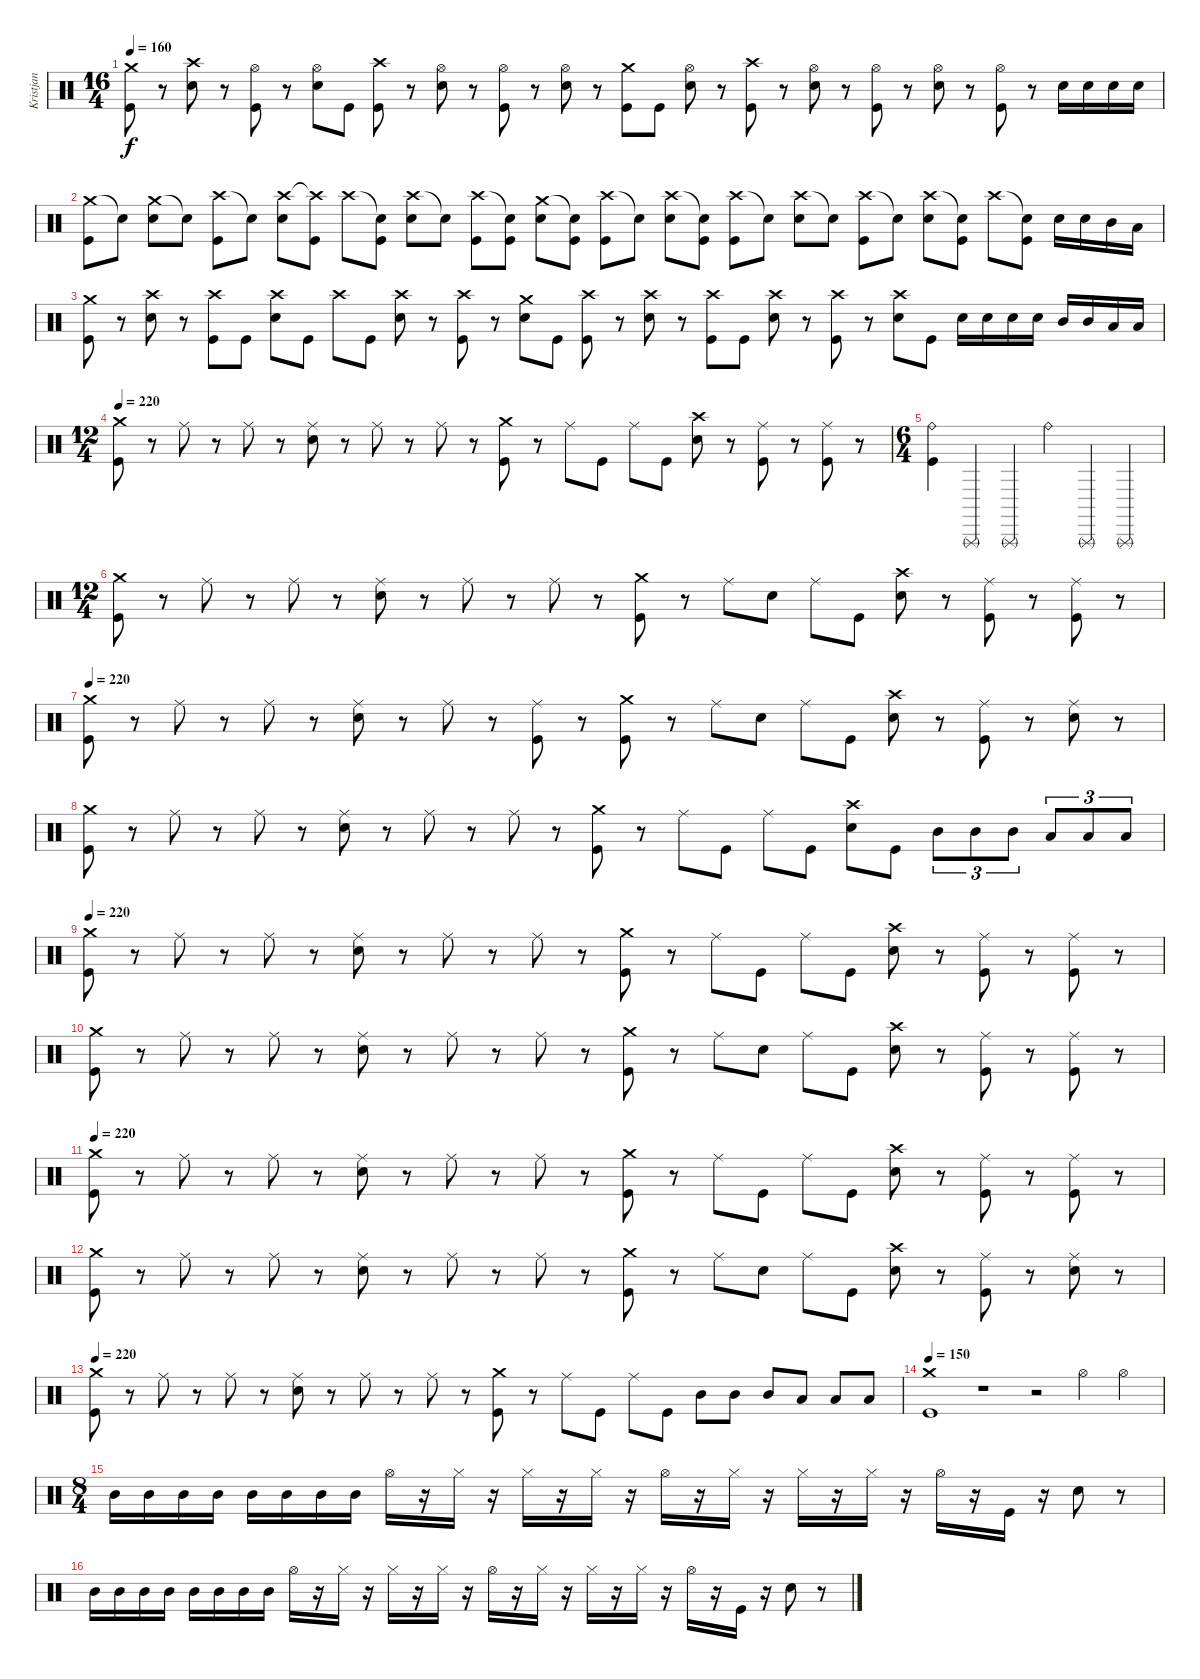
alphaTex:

\track ("Kristjan" "Kristjan") {instrument percussion}
\staff {score}
\articulation defaults
\ts (16 4)
\tempo 160
\clef neutral
\ks c
("Crash medium (hit)" "Kick (hit)").8{dy f} r.8 ("Crash high (hit)" "Electric Snare (hit)").8 r.8 ("Hi-Hat (open)" "Kick (hit)").8 r.8 ("Hi-Hat (open)" "Electric Snare (hit)").8 "Kick (hit)".8 ("Crash high (hit)" "Kick (hit)").8 r.8 ("Hi-Hat (open)" "Electric Snare (hit)").8 r.8 ("Hi-Hat (open)" "Kick (hit)").8 r.8 ("Hi-Hat (open)" "Electric Snare (hit)").8 r.8 ("Crash medium (hit)" "Kick (hit)").8 "Kick (hit)".8 ("Hi-Hat (open)" "Electric Snare (hit)").8 r.8 ("Crash high (hit)" "Kick (hit)").8 r.8 ("Hi-Hat (open)" "Electric Snare (hit)").8 r.8 ("Hi-Hat (open)" "Kick (hit)").8 r.8 ("Hi-Hat (open)" "Electric Snare (hit)").8 r.8 ("Hi-Hat (open)" "Kick (hit)").8 r.8 "Electric Snare (hit)".16 "Electric Snare (hit)".16 "Electric Snare (hit)".16 "Electric Snare (hit)".16 |
("Crash medium (hit)" "Kick (hit)").8 "Snare (hit)"{t}.8 ("Crash medium (hit)" "Electric Snare (hit)").8 "Snare (hit)"{t}.8 ("Crash high (hit)" "Kick (hit)").8 "Snare (hit)"{t}.8 ("Crash high (hit)" "Electric Snare (hit)").8 ("Crash high (hit)"{t} "Kick (hit)").8 "Crash high (hit)".8 ("Snare (hit)"{t} "Kick (hit)").8 ("Crash high (hit)" "Electric Snare (hit)").8 "Snare (hit)"{t}.8 ("Crash high (hit)" "Kick (hit)").8 ("Snare (hit)"{t} "Kick (hit)").8 ("Crash medium (hit)" "Electric Snare (hit)").8 ("Snare (hit)"{t} "Kick (hit)").8 ("Crash high (hit)" "Kick (hit)").8 "Snare (hit)"{t}.8 ("Crash high (hit)" "Electric Snare (hit)").8 ("Snare (hit)"{t} "Kick (hit)").8 ("Crash high (hit)" "Kick (hit)").8 "Snare (hit)"{t}.8 ("Crash high (hit)" "Electric Snare (hit)").8 "Snare (hit)"{t}.8 ("Crash high (hit)" "Kick (hit)").8 "Snare (hit)"{t}.8 ("Crash high (hit)" "Electric Snare (hit)").8 ("Snare (hit)"{t} "Kick (hit)").8 "Crash high (hit)".8 ("Snare (hit)"{t} "Kick (hit)").8 "Electric Snare (hit)".16 "Electric Snare (hit)".16 "Mid Tom (hit)".16 "Low Floor Tom (hit)".16 |
("Crash medium (hit)" "Kick (hit)").8 r.8 ("Crash high (hit)" "Electric Snare (hit)").8 r.8 ("Crash high (hit)" "Kick (hit)").8 "Kick (hit)".8 ("Crash high (hit)" "Electric Snare (hit)").8 "Kick (hit)".8 "Crash high (hit)".8 "Kick (hit)".8 ("Crash high (hit)" "Electric Snare (hit)").8 r.8 ("Crash high (hit)" "Kick (hit)").8 r.8 ("Crash medium (hit)" "Electric Snare (hit)").8 "Kick (hit)".8 ("Crash high (hit)" "Kick (hit)").8 r.8 ("Crash high (hit)" "Electric Snare (hit)").8 r.8 ("Crash high (hit)" "Kick (hit)").8 "Kick (hit)".8 ("Crash high (hit)" "Electric Snare (hit)").8 r.8 ("Crash high (hit)" "Kick (hit)").8 r.8 ("Crash high (hit)" "Electric Snare (hit)").8 "Kick (hit)".8 "Electric Snare (hit)".16 "Electric Snare (hit)".16 "Electric Snare (hit)".16 "Electric Snare (hit)".16 "Mid Tom (hit)".16 "Mid Tom (hit)".16 "Low Floor Tom (hit)".16 "Low Floor Tom (hit)".16 |
\ts (12 4)
\tempo 220
("Crash medium (hit)" "Kick (hit)").8 r.8 "Ride (middle)".8 r.8 "Ride (middle)".8 r.8 ("Ride (middle)" "Electric Snare (hit)").8 r.8 "Ride (middle)".8 r.8 "Ride (middle)".8 r.8 ("Crash medium (hit)" "Kick (hit)").8 r.8 "Ride (middle)".8 "Kick (hit)".8 "Ride (middle)".8 "Kick (hit)".8 ("Crash high (hit)" "Electric Snare (hit)").8 r.8 ("Ride (middle)" "Kick (hit)").8 r.8 ("Ride (middle)" "Kick (hit)").8 r.8 |
\ts (6 4)
("Ride (bell)" "Kick (hit)").4 "Triangle (rnute)".4 "Triangle (rnute)".4 "Ride (bell)".4 "Triangle (rnute)".4 "Triangle (rnute)".4 |
\ts (12 4)
("Crash medium (hit)" "Kick (hit)").8 r.8 "Ride (middle)".8 r.8 "Ride (middle)".8 r.8 ("Ride (middle)" "Electric Snare (hit)").8 r.8 "Ride (middle)".8 r.8 "Ride (middle)".8 r.8 ("Crash medium (hit)" "Kick (hit)").8 r.8 "Ride (middle)".8 "Electric Snare (hit)".8 "Ride (middle)".8 "Kick (hit)".8 ("Crash high (hit)" "Electric Snare (hit)").8 r.8 ("Ride (middle)" "Kick (hit)").8 r.8 ("Ride (middle)" "Kick (hit)").8 r.8 |
\tempo 220
("Crash medium (hit)" "Kick (hit)").8 r.8 "Ride (middle)".8 r.8 "Ride (middle)".8 r.8 ("Ride (middle)" "Electric Snare (hit)").8 r.8 "Ride (middle)".8 r.8 ("Ride (middle)" "Kick (hit)").8 r.8 ("Crash medium (hit)" "Kick (hit)").8 r.8 "Ride (middle)".8 "Electric Snare (hit)".8 "Ride (middle)".8 "Kick (hit)".8 ("Crash high (hit)" "Electric Snare (hit)").8 r.8 ("Ride (middle)" "Kick (hit)").8 r.8 ("Ride (middle)" "Electric Snare (hit)").8 r.8 |
("Crash medium (hit)" "Kick (hit)").8 r.8 "Ride (middle)".8 r.8 "Ride (middle)".8 r.8 ("Ride (middle)" "Electric Snare (hit)").8 r.8 "Ride (middle)".8 r.8 "Ride (middle)".8 r.8 ("Crash medium (hit)" "Kick (hit)").8 r.8 "Ride (middle)".8 "Kick (hit)".8 "Ride (middle)".8 "Kick (hit)".8 ("Crash high (hit)" "Electric Snare (hit)").8 "Kick (hit)".8 "Mid Tom (hit)".8{tu (3 2)} "Mid Tom (hit)".8{tu (3 2)} "Mid Tom (hit)".8{tu (3 2)} "Low Floor Tom (hit)".8{tu (3 2)} "Low Floor Tom (hit)".8{tu (3 2)} "Low Floor Tom (hit)".8{tu (3 2)} |
\tempo 220
("Crash medium (hit)" "Kick (hit)").8 r.8 "Ride (middle)".8 r.8 "Ride (middle)".8 r.8 ("Ride (middle)" "Electric Snare (hit)").8 r.8 "Ride (middle)".8 r.8 "Ride (middle)".8 r.8 ("Crash medium (hit)" "Kick (hit)").8 r.8 "Ride (middle)".8 "Kick (hit)".8 "Ride (middle)".8 "Kick (hit)".8 ("Crash high (hit)" "Electric Snare (hit)").8 r.8 ("Ride (middle)" "Kick (hit)").8 r.8 ("Ride (middle)" "Kick (hit)").8 r.8 |
("Crash medium (hit)" "Kick (hit)").8 r.8 "Ride (middle)".8 r.8 "Ride (middle)".8 r.8 ("Ride (middle)" "Electric Snare (hit)").8 r.8 "Ride (middle)".8 r.8 "Ride (middle)".8 r.8 ("Crash medium (hit)" "Kick (hit)").8 r.8 "Ride (middle)".8 "Electric Snare (hit)".8 "Ride (middle)".8 "Kick (hit)".8 ("Crash high (hit)" "Electric Snare (hit)").8 r.8 ("Ride (middle)" "Kick (hit)").8 r.8 ("Ride (middle)" "Kick (hit)").8 r.8 |
\tempo 220
("Crash medium (hit)" "Kick (hit)").8 r.8 "Ride (middle)".8 r.8 "Ride (middle)".8 r.8 ("Ride (middle)" "Electric Snare (hit)").8 r.8 "Ride (middle)".8 r.8 "Ride (middle)".8 r.8 ("Crash medium (hit)" "Kick (hit)").8 r.8 "Ride (middle)".8 "Kick (hit)".8 "Ride (middle)".8 "Kick (hit)".8 ("Crash high (hit)" "Electric Snare (hit)").8 r.8 ("Ride (middle)" "Kick (hit)").8 r.8 ("Ride (middle)" "Kick (hit)").8 r.8 |
("Crash medium (hit)" "Kick (hit)").8 r.8 "Ride (middle)".8 r.8 "Ride (middle)".8 r.8 ("Ride (middle)" "Electric Snare (hit)").8 r.8 "Ride (middle)".8 r.8 "Ride (middle)".8 r.8 ("Crash medium (hit)" "Kick (hit)").8 r.8 "Ride (middle)".8 "Electric Snare (hit)".8 "Ride (middle)".8 "Kick (hit)".8 ("Crash high (hit)" "Electric Snare (hit)").8 r.8 ("Ride (middle)" "Kick (hit)").8 r.8 ("Ride (middle)" "Electric Snare (hit)").8 r.8 |
\tempo 220
("Crash medium (hit)" "Kick (hit)").8 r.8 "Ride (middle)".8 r.8 "Ride (middle)".8 r.8 ("Ride (middle)" "Electric Snare (hit)").8 r.8 "Ride (middle)".8 r.8 "Ride (middle)".8 r.8 ("Crash medium (hit)" "Kick (hit)").8 r.8 "Ride (middle)".8 "Kick (hit)".8 "Ride (middle)".8 "Kick (hit)".8 "Mid Tom (hit)".8 "Mid Tom (hit)".8 "Mid Tom (hit)".8 "Low Floor Tom (hit)".8 "Low Floor Tom (hit)".8 "Low Floor Tom (hit)".8 |
\tempo 150
("Crash medium (hit)" "Kick (hit)").1 r.1 r.2 "Hi-Hat (open)".4 "Hi-Hat (open)".4 |
\ts (8 4)
"Mid Tom (hit)".16 "Mid Tom (hit)".16 "Mid Tom (hit)".16 "Mid Tom (hit)".16 "Mid Tom (hit)".16 "Mid Tom (hit)".16 "Mid Tom (hit)".16 "Mid Tom (hit)".16 "Hi-Hat (open)".16 r.16 "Hi-Hat (closed)".16 r.16 "Hi-Hat (closed)".16 r.16 "Hi-Hat (closed)".16 r.16 "Hi-Hat (open)".16 r.16 "Hi-Hat (closed)".16 r.16 "Hi-Hat (closed)".16 r.16 "Hi-Hat (closed)".16 r.16 "Hi-Hat (open)".16 r.16 "Kick (hit)".16 r.16 "Electric Snare (hit)".8 r.8 |
"Mid Tom (hit)".16 "Mid Tom (hit)".16 "Mid Tom (hit)".16 "Mid Tom (hit)".16 "Mid Tom (hit)".16 "Mid Tom (hit)".16 "Mid Tom (hit)".16 "Mid Tom (hit)".16 "Hi-Hat (open)".16 r.16 "Hi-Hat (closed)".16 r.16 "Hi-Hat (closed)".16 r.16 "Hi-Hat (closed)".16 r.16 "Hi-Hat (open)".16 r.16 "Hi-Hat (closed)".16 r.16 "Hi-Hat (closed)".16 r.16 "Hi-Hat (closed)".16 r.16 "Hi-Hat (open)".16 r.16 "Kick (hit)".16 r.16 "Electric Snare (hit)".8 r.8
